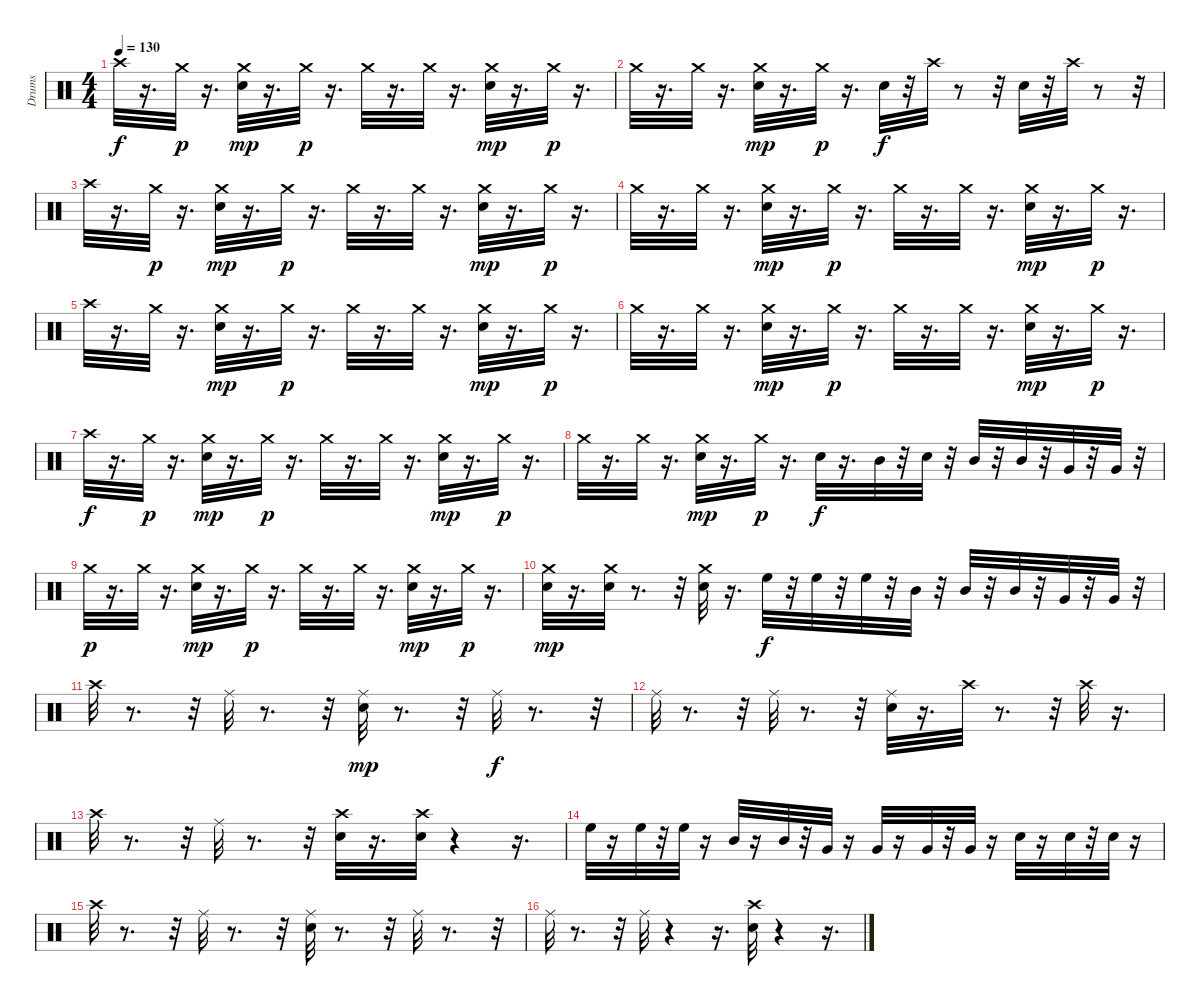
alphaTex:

\track ("Drums" "Drums") {instrument percussion}
\staff {score}
\articulation defaults
\ts (4 4)
\tempo 130
\clef neutral
\ks c "Crash high (hit)".32{dy f}
r.16{d} "Crash medium (hit)".32{dy p} r.16{d} ("Snare (hit) 2" "Crash medium (hit)").32{dy mp} r.16{d} "Crash medium (hit)".32{dy p} r.16{d} "Crash medium (hit)".32 r.16{d} "Crash medium (hit)".32 r.16{d} ("Snare (hit) 2" "Crash medium (hit)").32{dy mp} r.16{d} "Crash medium (hit)".32{dy p} r.16{d} |
"Crash medium (hit)".32 r.16{d} "Crash medium (hit)".32 r.16{d} ("Snare (hit) 2" "Crash medium (hit)").32{dy mp} r.16{d} "Crash medium (hit)".32{dy p} r.16{d} "Snare (hit) 2".32{dy f} r.32 "Crash high (hit)".32 r.8 r.32 "Snare (hit) 2".32 r.32 "Crash high (hit)".32 r.8 r.32 |
"Crash high (hit)".32 r.16{d} "Crash medium (hit)".32{dy p} r.16{d} ("Snare (hit) 2" "Crash medium (hit)").32{dy mp} r.16{d} "Crash medium (hit)".32{dy p} r.16{d} "Crash medium (hit)".32 r.16{d} "Crash medium (hit)".32 r.16{d} ("Snare (hit) 2" "Crash medium (hit)").32{dy mp} r.16{d} "Crash medium (hit)".32{dy p} r.16{d} |
"Crash medium (hit)".32 r.16{d} "Crash medium (hit)".32 r.16{d} ("Snare (hit) 2" "Crash medium (hit)").32{dy mp} r.16{d} "Crash medium (hit)".32{dy p} r.16{d} "Crash medium (hit)".32 r.16{d} "Crash medium (hit)".32 r.16{d} ("Snare (hit) 2" "Crash medium (hit)").32{dy mp} r.16{d} "Crash medium (hit)".32{dy p} r.16{d} |
"Crash high (hit)".32 r.16{d} "Crash medium (hit)".32 r.16{d} ("Snare (hit) 2" "Crash medium (hit)").32{dy mp} r.16{d} "Crash medium (hit)".32{dy p} r.16{d} "Crash medium (hit)".32 r.16{d} "Crash medium (hit)".32 r.16{d} ("Snare (hit) 2" "Crash medium (hit)").32{dy mp} r.16{d} "Crash medium (hit)".32{dy p} r.16{d} |
"Crash medium (hit)".32 r.16{d} "Crash medium (hit)".32 r.16{d} ("Snare (hit) 2" "Crash medium (hit)").32{dy mp} r.16{d} "Crash medium (hit)".32{dy p} r.16{d} "Crash medium (hit)".32 r.16{d} "Crash medium (hit)".32 r.16{d} ("Snare (hit) 2" "Crash medium (hit)").32{dy mp} r.16{d} "Crash medium (hit)".32{dy p} r.16{d} |
"Crash high (hit)".32{dy f} r.16{d} "Crash medium (hit)".32{dy p} r.16{d} ("Snare (hit) 2" "Crash medium (hit)").32{dy mp} r.16{d} "Crash medium (hit)".32{dy p} r.16{d} "Crash medium (hit)".32 r.16{d} "Crash medium (hit)".32 r.16{d} ("Snare (hit) 2" "Crash medium (hit)").32{dy mp} r.16{d} "Crash medium (hit)".32{dy p} r.16{d} |
"Crash medium (hit)".32 r.16{d} "Crash medium (hit)".32 r.16{d} ("Snare (hit) 2" "Crash medium (hit)").32{dy mp} r.16{d} "Crash medium (hit)".32{dy p} r.16{d} "Snare (hit) 2".32{dy f} r.16{d} "Mid Tom (hit)".32 r.32 "Snare (hit) 2".32 r.32 "Mid Tom (hit)".32 r.32 "Mid Tom (hit)".32 r.32 "Very Low Tom (hit)".32 r.32 "Very Low Tom (hit)".32 r.32 |
"Crash medium (hit)".32{dy p} r.16{d} "Crash medium (hit)".32 r.16{d} ("Snare (hit) 2" "Crash medium (hit)").32{dy mp} r.16{d} "Crash medium (hit)".32{dy p} r.16{d} "Crash medium (hit)".32 r.16{d} "Crash medium (hit)".32 r.16{d} ("Snare (hit) 2" "Crash medium (hit)").32{dy mp} r.16{d} "Crash medium (hit)".32{dy p} r.16{d} |
("Snare (hit) 2" "Crash medium (hit)").32{dy mp} r.16{d} ("Snare (hit) 2" "Crash medium (hit)").32 r.8{d} r.32 ("Snare (hit) 2" "Crash medium (hit)").32 r.16{d} "High Floor Tom (hit)".32{dy f} r.32 "High Floor Tom (hit)".32 r.32 "High Floor Tom (hit)".32 r.32 "Mid Tom (hit)".32 r.32 "Mid Tom (hit)".32 r.32 "Mid Tom (hit)".32 r.32 "Very Low Tom (hit)".32 r.32 "Very Low Tom (hit)".32 r.32 |
"Crash high (hit)".32 r.8{d} r.32 "Ride (middle)".32 r.8{d} r.32 ("Snare (hit) 2" "Ride (middle)").32{dy mp} r.8{d} r.32 "Ride (middle)".32{dy f} r.8{d} r.32 |
"Ride (middle)".32 r.8{d} r.32 "Ride (middle)".32 r.8{d} r.32 ("Snare (hit) 2" "Ride (middle)").32 r.16{d} "Crash high (hit)".32 r.8{d} r.32 "Crash high (hit)".32 r.16{d} |
"Crash high (hit)".32 r.8{d} r.32 "Ride (middle)".32 r.8{d} r.32 ("Crash high (hit)" "Snare (hit) 2").32 r.16{d} ("Crash high (hit)" "Snare (hit) 2").32 r.4 r.16{d} |
"High Floor Tom (hit)".32 r.16 "High Floor Tom (hit)".32 r.32 "High Floor Tom (hit)".32 r.16 "Mid Tom (hit)".32 r.16 "Mid Tom (hit)".32 r.32 "Very Low Tom (hit)".32 r.16 "Very Low Tom (hit)".32 r.16 "Very Low Tom (hit)".32 r.32 "Very Low Tom (hit)".32 r.16 "Snare (hit)".32 r.16 "Snare (hit)".32 r.32 "Snare (hit)".32 r.16 |
"Crash high (hit)".32 r.8{d} r.32 "Ride (middle)".32 r.8{d} r.32 ("Snare (hit) 2" "Ride (middle)").32 r.8{d} r.32 "Ride (middle)".32 r.8{d} r.32 |
"Ride (middle)".32 r.8{d} r.32 "Ride (middle)".32 r.4 r.16{d} ("Crash high (hit)" "Snare (hit) 2").32 r.4 r.16{d}
